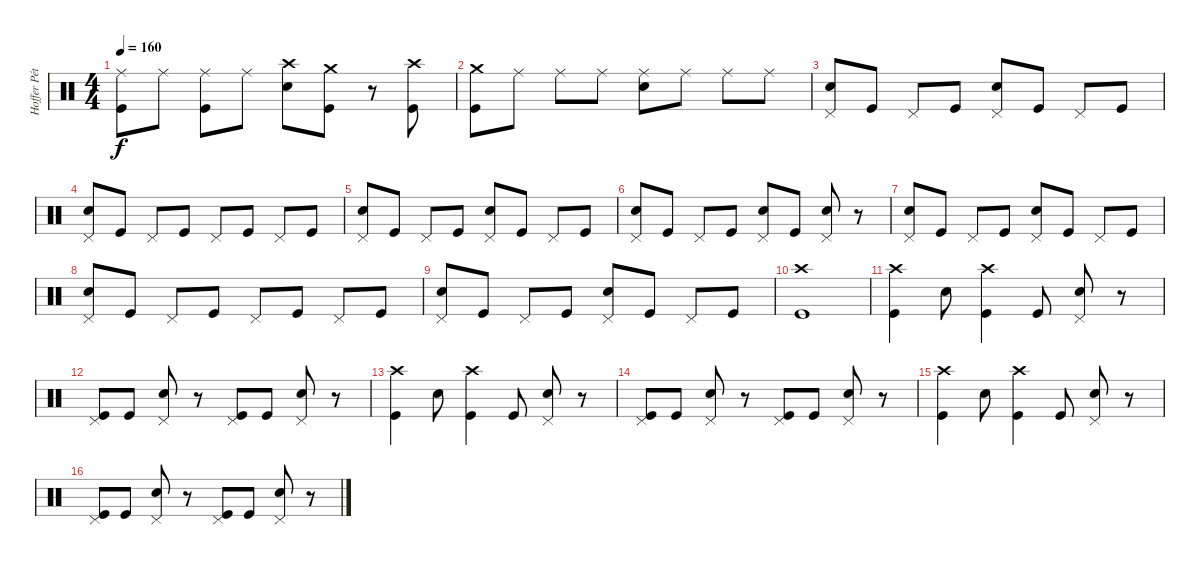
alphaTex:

\track ("Hoffer Péter" "Hoffer Pét") {instrument percussion}
\staff {score}
\articulation defaults
\ts (4 4)
\tempo 160
\clef neutral
\ks c
("Ride (middle)" "Kick (hit)").8{dy f} "Ride (middle)".8 ("Ride (middle)" "Kick (hit)").8 "Ride (middle)".8 ("Crash high (hit)" "Electric Snare (hit)").8 ("Crash medium (hit)" "Kick (hit)").8 r.8 ("Crash high (hit)" "Kick (hit)").8 |
("Crash medium (hit)" "Kick (hit)").8 "Ride (middle)".8 "Ride (middle)".8 "Ride (middle)".8 ("Ride (middle)" "Electric Snare (hit)").8 "Ride (middle)".8 "Ride (middle)".8 "Ride (middle)".8 |
("Pedal Hi-Hat (hit)" "Electric Snare (hit)").8 "Kick (hit)".8 "Pedal Hi-Hat (hit)".8 "Kick (hit)".8 ("Pedal Hi-Hat (hit)" "Electric Snare (hit)").8 "Kick (hit)".8 "Pedal Hi-Hat (hit)".8 "Kick (hit)".8 |
("Pedal Hi-Hat (hit)" "Electric Snare (hit)").8 "Kick (hit)".8 "Pedal Hi-Hat (hit)".8 "Kick (hit)".8 "Pedal Hi-Hat (hit)".8 "Kick (hit)".8 "Pedal Hi-Hat (hit)".8 "Kick (hit)".8 |
("Pedal Hi-Hat (hit)" "Electric Snare (hit)").8 "Kick (hit)".8 "Pedal Hi-Hat (hit)".8 "Kick (hit)".8 ("Pedal Hi-Hat (hit)" "Electric Snare (hit)").8 "Kick (hit)".8 "Pedal Hi-Hat (hit)".8 "Kick (hit)".8 |
("Pedal Hi-Hat (hit)" "Electric Snare (hit)").8 "Kick (hit)".8 "Pedal Hi-Hat (hit)".8 "Kick (hit)".8 ("Pedal Hi-Hat (hit)" "Electric Snare (hit)").8 "Kick (hit)".8 ("Pedal Hi-Hat (hit)" "Electric Snare (hit)").8 r.8 |
("Pedal Hi-Hat (hit)" "Electric Snare (hit)").8 "Kick (hit)".8 "Pedal Hi-Hat (hit)".8 "Kick (hit)".8 ("Pedal Hi-Hat (hit)" "Electric Snare (hit)").8 "Kick (hit)".8 "Pedal Hi-Hat (hit)".8 "Kick (hit)".8 |
("Pedal Hi-Hat (hit)" "Electric Snare (hit)").8 "Kick (hit)".8 "Pedal Hi-Hat (hit)".8 "Kick (hit)".8 "Pedal Hi-Hat (hit)".8 "Kick (hit)".8 "Pedal Hi-Hat (hit)".8 "Kick (hit)".8 |
("Pedal Hi-Hat (hit)" "Electric Snare (hit)").8 "Kick (hit)".8 "Pedal Hi-Hat (hit)".8 "Kick (hit)".8 ("Pedal Hi-Hat (hit)" "Electric Snare (hit)").8 "Kick (hit)".8 "Pedal Hi-Hat (hit)".8 "Kick (hit)".8 |
("Crash high (hit)" "Kick (hit)").1 |
("Crash high (hit)" "Kick (hit)").4 "Electric Snare (hit)".8 ("Crash high (hit)" "Kick (hit)").4 "Kick (hit)".8 ("Pedal Hi-Hat (hit)" "Electric Snare (hit)").8 r.8 |
("Pedal Hi-Hat (hit)" "Kick (hit)").8 "Kick (hit)".8 ("Pedal Hi-Hat (hit)" "Electric Snare (hit)").8 r.8 ("Pedal Hi-Hat (hit)" "Kick (hit)").8 "Kick (hit)".8 ("Pedal Hi-Hat (hit)" "Electric Snare (hit)").8 r.8 |
("Crash high (hit)" "Kick (hit)").4 "Electric Snare (hit)".8 ("Crash high (hit)" "Kick (hit)").4 "Kick (hit)".8 ("Pedal Hi-Hat (hit)" "Electric Snare (hit)").8 r.8 |
("Pedal Hi-Hat (hit)" "Kick (hit)").8 "Kick (hit)".8 ("Pedal Hi-Hat (hit)" "Electric Snare (hit)").8 r.8 ("Pedal Hi-Hat (hit)" "Kick (hit)").8 "Kick (hit)".8 ("Pedal Hi-Hat (hit)" "Electric Snare (hit)").8 r.8 |
("Crash high (hit)" "Kick (hit)").4 "Electric Snare (hit)".8 ("Crash high (hit)" "Kick (hit)").4 "Kick (hit)".8 ("Pedal Hi-Hat (hit)" "Electric Snare (hit)").8 r.8 |
("Pedal Hi-Hat (hit)" "Kick (hit)").8 "Kick (hit)".8 ("Pedal Hi-Hat (hit)" "Electric Snare (hit)").8 r.8 ("Pedal Hi-Hat (hit)" "Kick (hit)").8 "Kick (hit)".8 ("Pedal Hi-Hat (hit)" "Electric Snare (hit)").8 r.8
